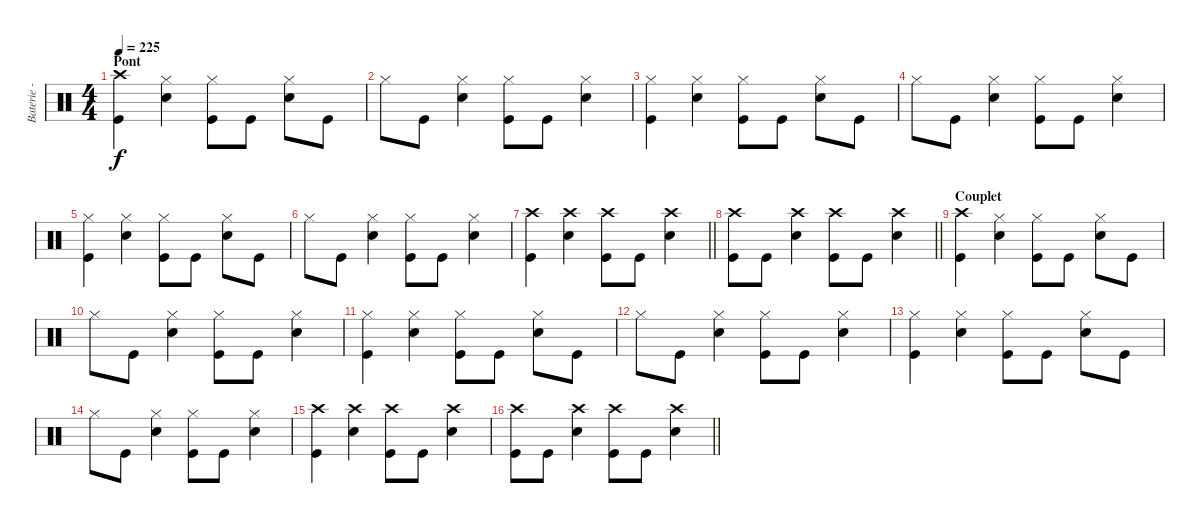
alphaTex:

\track ("Baterie - Alex" "Baterie - ") {instrument percussion}
\staff {score}
\articulation defaults
\ts (4 4)
\section ("" "Pont")
\tempo 225
\clef neutral
\ks c
("Crash high (hit)" "Kick (hit)").4{dy f} ("Hi-Hat (closed)" "Electric Snare (hit)").4 ("Hi-Hat (closed)" "Kick (hit)").8 "Kick (hit)".8 ("Hi-Hat (closed)" "Electric Snare (hit)").8 "Kick (hit)".8 |
"Hi-Hat (closed)".8 "Kick (hit)".8 ("Hi-Hat (closed)" "Electric Snare (hit)").4 ("Hi-Hat (closed)" "Kick (hit)").8 "Kick (hit)".8 ("Hi-Hat (closed)" "Electric Snare (hit)").4 |
("Hi-Hat (closed)" "Kick (hit)").4 ("Hi-Hat (closed)" "Electric Snare (hit)").4 ("Hi-Hat (closed)" "Kick (hit)").8 "Kick (hit)".8 ("Hi-Hat (closed)" "Electric Snare (hit)").8 "Kick (hit)".8 |
"Hi-Hat (closed)".8 "Kick (hit)".8 ("Hi-Hat (closed)" "Electric Snare (hit)").4 ("Hi-Hat (closed)" "Kick (hit)").8 "Kick (hit)".8 ("Hi-Hat (closed)" "Electric Snare (hit)").4 |
("Hi-Hat (closed)" "Kick (hit)").4 ("Hi-Hat (closed)" "Electric Snare (hit)").4 ("Hi-Hat (closed)" "Kick (hit)").8 "Kick (hit)".8 ("Hi-Hat (closed)" "Electric Snare (hit)").8 "Kick (hit)".8 |
"Hi-Hat (closed)".8 "Kick (hit)".8 ("Hi-Hat (closed)" "Electric Snare (hit)").4 ("Hi-Hat (closed)" "Kick (hit)").8 "Kick (hit)".8 ("Hi-Hat (closed)" "Electric Snare (hit)").4 |
\barLineRight lightlight
("Crash high (hit)" "Kick (hit)").4 ("Crash high (hit)" "Electric Snare (hit)").4 ("Crash high (hit)" "Kick (hit)").8 "Kick (hit)".8 ("Crash high (hit)" "Electric Snare (hit)").4 |
\barLineRight lightlight
("Crash high (hit)" "Kick (hit)").8 "Kick (hit)".8 ("Crash high (hit)" "Electric Snare (hit)").4 ("Crash high (hit)" "Kick (hit)").8 "Kick (hit)".8 ("Crash high (hit)" "Electric Snare (hit)").4 |
\section ("" "Couplet")
("Crash high (hit)" "Kick (hit)").4 ("Hi-Hat (closed)" "Electric Snare (hit)").4 ("Hi-Hat (closed)" "Kick (hit)").8 "Kick (hit)".8 ("Hi-Hat (closed)" "Electric Snare (hit)").8 "Kick (hit)".8 |
"Hi-Hat (closed)".8 "Kick (hit)".8 ("Hi-Hat (closed)" "Electric Snare (hit)").4 ("Hi-Hat (closed)" "Kick (hit)").8 "Kick (hit)".8 ("Hi-Hat (closed)" "Electric Snare (hit)").4 |
("Hi-Hat (closed)" "Kick (hit)").4 ("Hi-Hat (closed)" "Electric Snare (hit)").4 ("Hi-Hat (closed)" "Kick (hit)").8 "Kick (hit)".8 ("Hi-Hat (closed)" "Electric Snare (hit)").8 "Kick (hit)".8 |
"Hi-Hat (closed)".8 "Kick (hit)".8 ("Hi-Hat (closed)" "Electric Snare (hit)").4 ("Hi-Hat (closed)" "Kick (hit)").8 "Kick (hit)".8 ("Hi-Hat (closed)" "Electric Snare (hit)").4 |
("Hi-Hat (closed)" "Kick (hit)").4 ("Hi-Hat (closed)" "Electric Snare (hit)").4 ("Hi-Hat (closed)" "Kick (hit)").8 "Kick (hit)".8 ("Hi-Hat (closed)" "Electric Snare (hit)").8 "Kick (hit)".8 |
"Hi-Hat (closed)".8 "Kick (hit)".8 ("Hi-Hat (closed)" "Electric Snare (hit)").4 ("Hi-Hat (closed)" "Kick (hit)").8 "Kick (hit)".8 ("Hi-Hat (closed)" "Electric Snare (hit)").4 |
("Crash high (hit)" "Kick (hit)").4 ("Crash high (hit)" "Electric Snare (hit)").4 ("Crash high (hit)" "Kick (hit)").8 "Kick (hit)".8 ("Crash high (hit)" "Electric Snare (hit)").4 |
\barLineRight lightlight
("Crash high (hit)" "Kick (hit)").8 "Kick (hit)".8 ("Crash high (hit)" "Electric Snare (hit)").4 ("Crash high (hit)" "Kick (hit)").8 "Kick (hit)".8 ("Crash high (hit)" "Electric Snare (hit)").4
